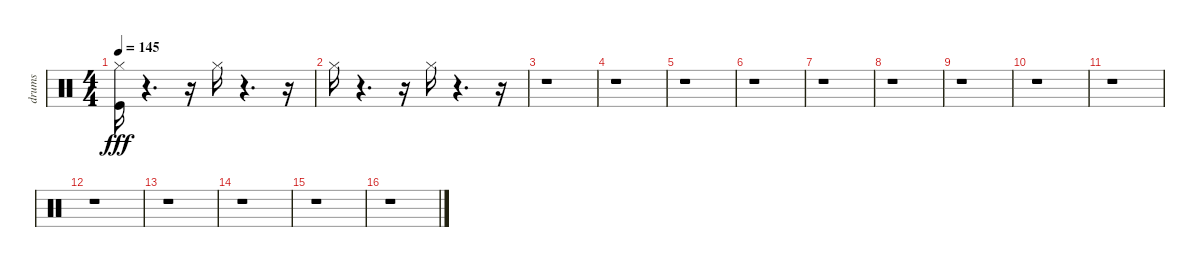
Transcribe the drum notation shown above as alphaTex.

\track ("drums" "drums") {instrument percussion}
\staff {score}
\articulation defaults
\ts (4 4)
\tempo 145
\clef neutral
\ks c
("Kick (hit)" "Hi-Hat (closed)").16{dy fff} r.4{d} r.16 "Hi-Hat (closed)".16 r.4{d} r.16 |
"Hi-Hat (closed)".16 r.4{d} r.16 "Hi-Hat (closed)".16 r.4{d} r.16 |
r.1 |
r.1 |
r.1 |
r.1 |
r.1 |
r.1 |
r.1 |
r.1 |
r.1 |
r.1 |
r.1 |
r.1 |
r.1 |
r.1
